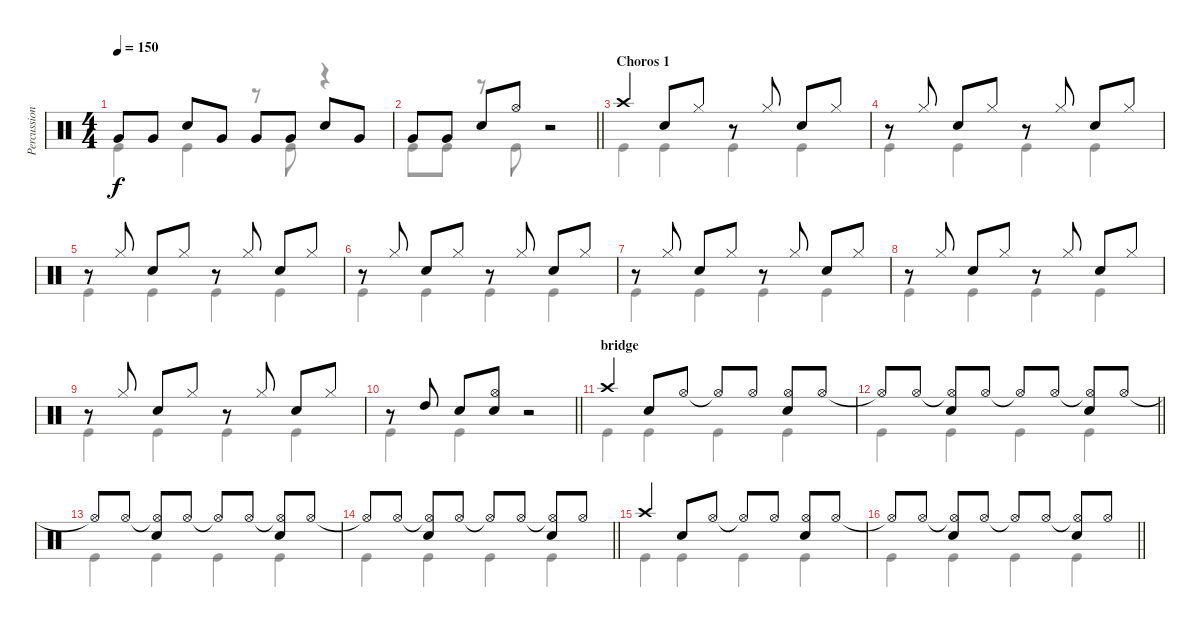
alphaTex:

\track ("Percussion" "Percussion") {instrument percussion}
\staff {score}
\articulation defaults
\voice
\ts (4 4)
\tempo 150
\clef neutral
\ks c "Very Low Tom (hit)".8{dy f} "Very Low Tom (hit)".8 "Snare (hit) 2".8 "Very Low Tom (hit)".8 "Very Low Tom (hit)".8 "Very Low Tom (hit)".8 "Snare (hit) 2".8 "Very Low Tom (hit)".8
|
\barLineRight lightlight "Very Low Tom (hit)".8 "Very Low Tom (hit)".8 "Snare (hit) 2".8 "Hi-Hat (open)".8
r.2 |
\section ("" "Choros 1")
"Crash high (hit)".4 "Snare (hit) 2".8 "Hi-Hat (closed)".8 r.8 "Hi-Hat (closed)".8 "Snare (hit) 2".8 "Hi-Hat (closed)".8 |
r.8 "Hi-Hat (closed)".8 "Snare (hit) 2".8 "Hi-Hat (closed)".8 r.8 "Hi-Hat (closed)".8 "Snare (hit) 2".8 "Hi-Hat (closed)".8 |
r.8 "Hi-Hat (closed)".8 "Snare (hit) 2".8 "Hi-Hat (closed)".8 r.8 "Hi-Hat (closed)".8 "Snare (hit) 2".8 "Hi-Hat (closed)".8 |
r.8 "Hi-Hat (closed)".8 "Snare (hit) 2".8 "Hi-Hat (closed)".8 r.8 "Hi-Hat (closed)".8 "Snare (hit) 2".8 "Hi-Hat (closed)".8 |
r.8 "Hi-Hat (closed)".8 "Snare (hit) 2".8 "Hi-Hat (closed)".8 r.8 "Hi-Hat (closed)".8 "Snare (hit) 2".8 "Hi-Hat (closed)".8 |
r.8 "Hi-Hat (closed)".8 "Snare (hit) 2".8 "Hi-Hat (closed)".8 r.8 "Hi-Hat (closed)".8 "Snare (hit) 2".8 "Hi-Hat (closed)".8 |
r.8 "Hi-Hat (closed)".8 "Snare (hit) 2".8 "Hi-Hat (closed)".8 r.8 "Hi-Hat (closed)".8 "Snare (hit) 2".8 "Hi-Hat (closed)".8 |
\barLineRight lightlight
r.8 "High Tom (hit)".8 "Snare (hit) 2".8 ("Hi-Hat (open)" "Snare (hit) 2").8 r.2 |
\section ("" "bridge")
"Crash high (hit)".4 "Snare (hit) 2".8 "Hi-Hat (open)".8 "Hi-Hat (open)"{t}.8 "Hi-Hat (open)".8 ("Snare (hit) 2" "Hi-Hat (open)").8 "Hi-Hat (open)".8 |
\barLineRight lightlight "Hi-Hat (open)"{t}.8 "Hi-Hat (open)".8
("Hi-Hat (open)"{t} "Snare (hit) 2").8 "Hi-Hat (open)".8 "Hi-Hat (open)"{t}.8 "Hi-Hat (open)".8 ("Hi-Hat (open)"{t} "Snare (hit) 2").8 "Hi-Hat (open)".8 |
"Hi-Hat (open)"{t}.8 "Hi-Hat (open)".8 ("Hi-Hat (open)"{t} "Snare (hit) 2").8 "Hi-Hat (open)".8 "Hi-Hat (open)"{t}.8 "Hi-Hat (open)".8 ("Hi-Hat (open)"{t} "Snare (hit) 2").8 "Hi-Hat (open)".8 |
\barLineRight lightlight "Hi-Hat (open)"{t}.8 "Hi-Hat (open)".8
("Hi-Hat (open)"{t} "Snare (hit) 2").8 "Hi-Hat (open)".8 "Hi-Hat (open)"{t}.8 "Hi-Hat (open)".8 ("Hi-Hat (open)"{t} "Snare (hit) 2").8 "Hi-Hat (open)".8 |
"Crash high (hit)".4 "Snare (hit) 2".8 "Hi-Hat (open)".8 "Hi-Hat (open)"{t}.8 "Hi-Hat (open)".8 ("Snare (hit) 2" "Hi-Hat (open)").8 "Hi-Hat (open)".8 |
\barLineRight lightlight "Hi-Hat (open)"{t}.8 "Hi-Hat (open)".8
("Hi-Hat (open)"{t} "Snare (hit) 2").8 "Hi-Hat (open)".8 "Hi-Hat (open)"{t}.8 "Hi-Hat (open)".8 ("Hi-Hat (open)"{t} "Snare (hit) 2").8 "Hi-Hat (open)".8
\voice
\clef neutral
\ottava regular
\simile none
\ks c "Kick (hit)".4{dy f} "Kick (hit)".4
r.8 "Kick (hit)".8 r.4 |
\barLineRight lightlight "Kick (hit)".8 "Kick (hit)".8
r.8 "Kick (hit)".8 r.2 |
"Kick (hit)".4 "Kick (hit)".4 "Kick (hit)".4 "Kick (hit)".4 |
"Kick (hit)".4 "Kick (hit)".4 "Kick (hit)".4 "Kick (hit)".4 |
"Kick (hit)".4 "Kick (hit)".4 "Kick (hit)".4 "Kick (hit)".4 |
"Kick (hit)".4 "Kick (hit)".4 "Kick (hit)".4 "Kick (hit)".4 |
"Kick (hit)".4 "Kick (hit)".4 "Kick (hit)".4 "Kick (hit)".4 |
"Kick (hit)".4 "Kick (hit)".4 "Kick (hit)".4 "Kick (hit)".4 |
"Kick (hit)".4 "Kick (hit)".4 "Kick (hit)".4 "Kick (hit)".4 |
\barLineRight lightlight "Kick (hit)".4 "Kick (hit)".4
r.2 |
"Kick (hit)".4 "Kick (hit)".4 "Kick (hit)".4 "Kick (hit)".4 |
\barLineRight lightlight "Kick (hit)".4 "Kick (hit)".4 "Kick (hit)".4 "Kick (hit)".4
|
"Kick (hit)".4 "Kick (hit)".4 "Kick (hit)".4 "Kick (hit)".4 |
\barLineRight lightlight "Kick (hit)".4 "Kick (hit)".4 "Kick (hit)".4 "Kick (hit)".4
|
"Kick (hit)".4 "Kick (hit)".4 "Kick (hit)".4 "Kick (hit)".4 |
\barLineRight lightlight "Kick (hit)".4 "Kick (hit)".4 "Kick (hit)".4 "Kick (hit)".4
